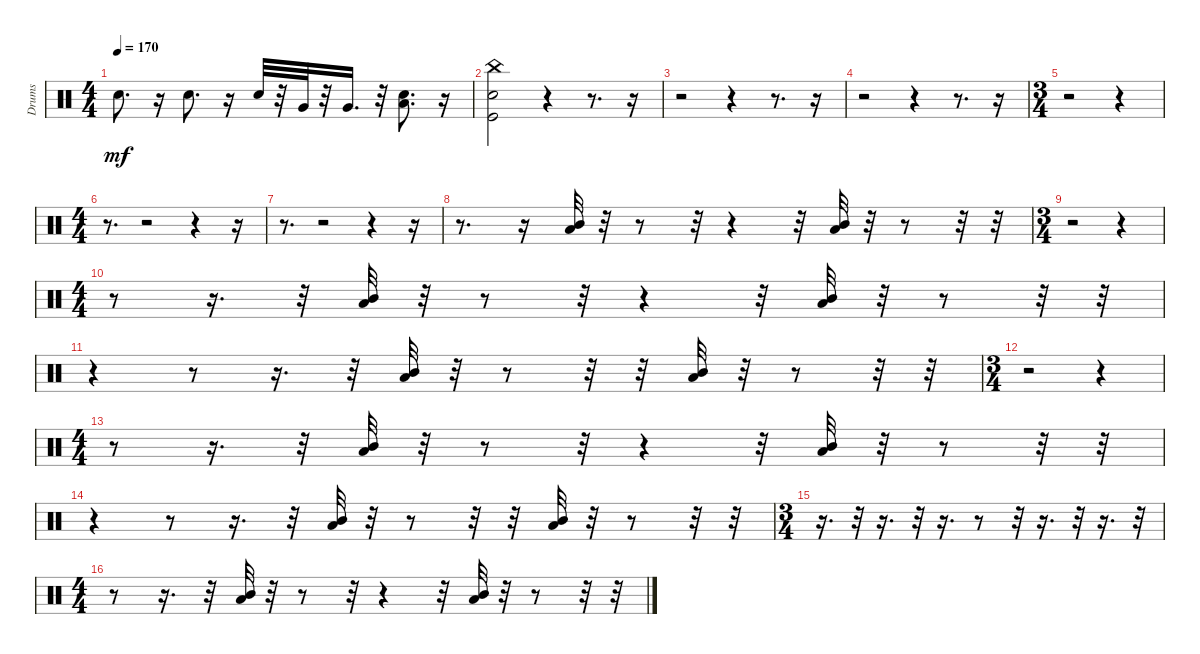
\track ("Drums" "Drums") {instrument percussion}
\staff {score}
\articulation defaults
\ts (4 4)
\tempo 170
\clef neutral
\ks c "Snare (hit) 2".8{d dy mf}
r.16 "Snare (hit) 2".8{d} r.16 "Snare (hit) 2".32 r.32 "Very Low Tom (hit)".32 r.32 "Very Low Tom (hit)".16{d} r.32 ("Snare (hit) 2" "Low Floor Tom (hit)").8{d} r.16 |
("Kick (hit)" "Snare (hit) 2" "China (hit)").2 r.4 r.8{d} r.16 |
r.2 r.4 r.8{d} r.16 |
r.2 r.4 r.8{d} r.16 |
\ts (3 4)
r.2 r.4 |
\ts (4 4)
r.8{d} r.2 r.4 r.16 |
r.8{d} r.2 r.4 r.16 |
r.8{d} r.16 ("Low Tom (hit)" "Mid Tom (hit)").32 r.32 r.8 r.32 r.4 r.32 ("Low Tom (hit)" "Mid Tom (hit)").32 r.32 r.8 r.32 r.32 |
\ts (3 4)
r.2 r.4 |
\ts (4 4)
r.8 r.16{d} r.32 ("Low Tom (hit)" "Mid Tom (hit)").32 r.32 r.8 r.32 r.4 r.32 ("Low Tom (hit)" "Mid Tom (hit)").32 r.32 r.8 r.32 r.32 |
r.4 r.8 r.16{d} r.32 ("Low Tom (hit)" "Mid Tom (hit)").32 r.32 r.8 r.32 r.32 ("Low Tom (hit)" "Mid Tom (hit)").32 r.32 r.8 r.32 r.32 |
\ts (3 4)
r.2 r.4 |
\ts (4 4)
r.8 r.16{d} r.32 ("Low Tom (hit)" "Mid Tom (hit)").32 r.32 r.8 r.32 r.4 r.32 ("Low Tom (hit)" "Mid Tom (hit)").32 r.32 r.8 r.32 r.32 |
r.4 r.8 r.16{d} r.32 ("Low Tom (hit)" "Mid Tom (hit)").32 r.32 r.8 r.32 r.32 ("Low Tom (hit)" "Mid Tom (hit)").32 r.32 r.8 r.32 r.32 |
\ts (3 4)
r.16{d} r.32 r.16{d} r.32 r.16{d} r.8 r.32 r.16{d} r.32 r.16{d} r.32 |
\ts (4 4)
r.8 r.16{d} r.32 ("Low Tom (hit)" "Mid Tom (hit)").32 r.32 r.8 r.32 r.4 r.32 ("Low Tom (hit)" "Mid Tom (hit)").32 r.32 r.8 r.32 r.32
